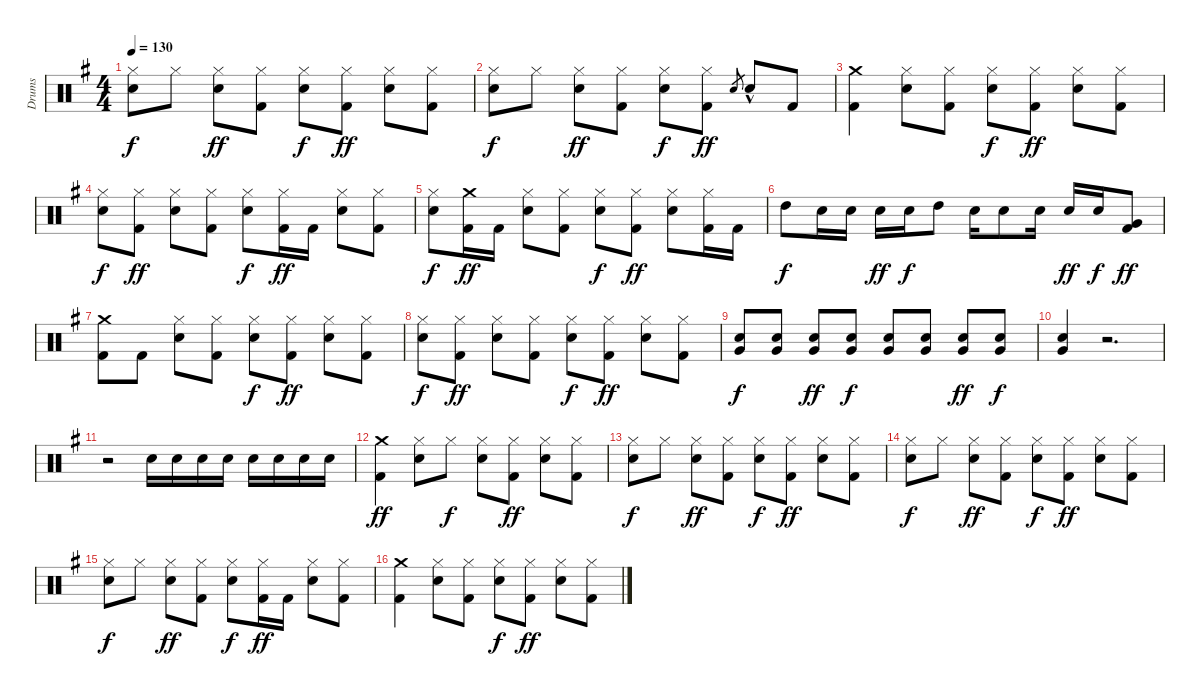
\track ("Drums" "Drums") {instrument percussion}
\staff {score}
\articulation defaults
\ts (4 4)
\tempo 130
\clef neutral
\ks g
("Snare (hit) 2" "Hi-Hat (closed)").8{dy f} "Hi-Hat (closed)".8 ("Snare (hit) 2" "Hi-Hat (closed)").8{dy ff} ("Kick (hit) 2" "Hi-Hat (closed)").8 ("Snare (hit) 2" "Hi-Hat (closed)").8{dy f} ("Kick (hit) 2" "Hi-Hat (closed)").8{dy ff} ("Snare (hit) 2" "Hi-Hat (closed)").8 ("Kick (hit) 2" "Hi-Hat (closed)").8 |
("Snare (hit) 2" "Hi-Hat (closed)").8{dy f} "Hi-Hat (closed)".8 ("Snare (hit) 2" "Hi-Hat (closed)").8{dy ff} ("Kick (hit) 2" "Hi-Hat (closed)").8 ("Snare (hit) 2" "Hi-Hat (closed)").8{dy f} ("Kick (hit) 2" "Hi-Hat (closed)").8{dy ff} "Snare (hit) 2".8{gr} "Snare (hit) 2"{hac}.8 "Kick (hit) 2".8 |
("Kick (hit) 2" "Crash medium (hit)").4 ("Snare (hit) 2" "Hi-Hat (closed)").8 ("Kick (hit) 2" "Hi-Hat (closed)").8 ("Snare (hit) 2" "Hi-Hat (closed)").8{dy f} ("Kick (hit) 2" "Hi-Hat (closed)").8{dy ff} ("Snare (hit) 2" "Hi-Hat (closed)").8 ("Kick (hit) 2" "Hi-Hat (closed)").8 |
("Snare (hit) 2" "Hi-Hat (closed)").8{dy f} ("Kick (hit) 2" "Hi-Hat (closed)").8{dy ff} ("Snare (hit) 2" "Hi-Hat (closed)").8 ("Kick (hit) 2" "Hi-Hat (closed)").8 ("Snare (hit) 2" "Hi-Hat (closed)").8{dy f} ("Kick (hit) 2" "Hi-Hat (closed)").16{dy ff} "Kick (hit) 2".16 ("Snare (hit) 2" "Hi-Hat (closed)").8 ("Kick (hit) 2" "Hi-Hat (closed)").8 |
("Snare (hit) 2" "Hi-Hat (closed)").8{dy f} ("Kick (hit) 2" "Crash medium (hit)").16{dy ff} "Kick (hit) 2".16 ("Snare (hit) 2" "Hi-Hat (closed)").8 ("Kick (hit) 2" "Hi-Hat (closed)").8 ("Snare (hit) 2" "Hi-Hat (closed)").8{dy f} ("Kick (hit) 2" "Hi-Hat (closed)").8{dy ff} ("Snare (hit) 2" "Hi-Hat (closed)").8 ("Kick (hit) 2" "Hi-Hat (closed)").16 "Kick (hit) 2".16 |
"High Tom (hit)".8{dy f} "Snare (hit) 2".16 "Snare (hit) 2".16 "Snare (hit) 2".16{dy ff} "Snare (hit) 2".16{dy f} "High Tom (hit)".8 "Snare (hit) 2".16 "Snare (hit) 2".8 "Snare (hit) 2".16 "Snare (hit) 2".16{dy ff} "Snare (hit) 2".16{dy f} ("Kick (hit) 2" "Very Low Tom (hit)").8{dy ff} |
("Kick (hit) 2" "Crash medium (hit)").8 "Kick (hit) 2".8 ("Snare (hit) 2" "Hi-Hat (closed)").8 ("Hi-Hat (closed)" "Kick (hit) 2").8 ("Snare (hit) 2" "Hi-Hat (closed)").8{dy f} ("Kick (hit) 2" "Hi-Hat (closed)").8{dy ff} ("Snare (hit) 2" "Hi-Hat (closed)").8 ("Kick (hit) 2" "Hi-Hat (closed)").8 |
("Snare (hit) 2" "Hi-Hat (closed)").8{dy f} ("Kick (hit) 2" "Hi-Hat (closed)").8{dy ff} ("Snare (hit) 2" "Hi-Hat (closed)").8 ("Kick (hit) 2" "Hi-Hat (closed)").8 ("Snare (hit) 2" "Hi-Hat (closed)").8{dy f} ("Kick (hit) 2" "Hi-Hat (closed)").8{dy ff} ("Snare (hit) 2" "Hi-Hat (closed)").8 ("Kick (hit) 2" "Hi-Hat (closed)").8 |
("Very Low Tom (hit)" "Snare (hit) 2").8{dy f} ("Very Low Tom (hit)" "Snare (hit) 2").8 ("Very Low Tom (hit)" "Snare (hit) 2").8{dy ff} ("Very Low Tom (hit)" "Snare (hit) 2").8{dy f} ("Very Low Tom (hit)" "Snare (hit) 2").8 ("Very Low Tom (hit)" "Snare (hit) 2").8 ("Very Low Tom (hit)" "Snare (hit) 2").8{dy ff} ("Very Low Tom (hit)" "Snare (hit) 2").8{dy f} |
("Very Low Tom (hit)" "Snare (hit) 2").4 r.2{d} |
r.2 "Snare (hit) 2".16 "Snare (hit) 2".16 "Snare (hit) 2".16 "Snare (hit) 2".16 "Snare (hit) 2".16 "Snare (hit) 2".16 "Snare (hit) 2".16 "Snare (hit) 2".16 |
("Kick (hit) 2" "Crash medium (hit)").4{dy ff} ("Hi-Hat (closed)" "Snare (hit) 2").8 "Hi-Hat (closed)".8{dy f} ("Hi-Hat (closed)" "Snare (hit) 2").8 ("Kick (hit) 2" "Hi-Hat (closed)").8{dy ff} ("Snare (hit) 2" "Hi-Hat (closed)").8 ("Kick (hit) 2" "Hi-Hat (closed)").8 |
("Snare (hit) 2" "Hi-Hat (closed)").8{dy f} "Hi-Hat (closed)".8 ("Snare (hit) 2" "Hi-Hat (closed)").8{dy ff} ("Kick (hit) 2" "Hi-Hat (closed)").8 ("Snare (hit) 2" "Hi-Hat (closed)").8{dy f} ("Kick (hit) 2" "Hi-Hat (closed)").8{dy ff} ("Snare (hit) 2" "Hi-Hat (closed)").8 ("Kick (hit) 2" "Hi-Hat (closed)").8 |
("Snare (hit) 2" "Hi-Hat (closed)").8{dy f} "Hi-Hat (closed)".8 ("Snare (hit) 2" "Hi-Hat (closed)").8{dy ff} ("Kick (hit) 2" "Hi-Hat (closed)").8 ("Snare (hit) 2" "Hi-Hat (closed)").8{dy f} ("Kick (hit) 2" "Hi-Hat (closed)").8{dy ff} ("Snare (hit) 2" "Hi-Hat (closed)").8 ("Kick (hit) 2" "Hi-Hat (closed)").8 |
("Snare (hit) 2" "Hi-Hat (closed)").8{dy f} "Hi-Hat (closed)".8 ("Snare (hit) 2" "Hi-Hat (closed)").8{dy ff} ("Kick (hit) 2" "Hi-Hat (closed)").8 ("Snare (hit) 2" "Hi-Hat (closed)").8{dy f} ("Kick (hit) 2" "Hi-Hat (closed)").16{dy ff} "Kick (hit) 2".16 ("Snare (hit) 2" "Hi-Hat (closed)").8 ("Kick (hit) 2" "Hi-Hat (closed)").8 |
("Kick (hit) 2" "Crash medium (hit)").4 ("Snare (hit) 2" "Hi-Hat (closed)").8 ("Kick (hit) 2" "Hi-Hat (closed)").8 ("Snare (hit) 2" "Hi-Hat (closed)").8{dy f} ("Kick (hit) 2" "Hi-Hat (closed)").8{dy ff} ("Snare (hit) 2" "Hi-Hat (closed)").8 ("Kick (hit) 2" "Hi-Hat (closed)").8
